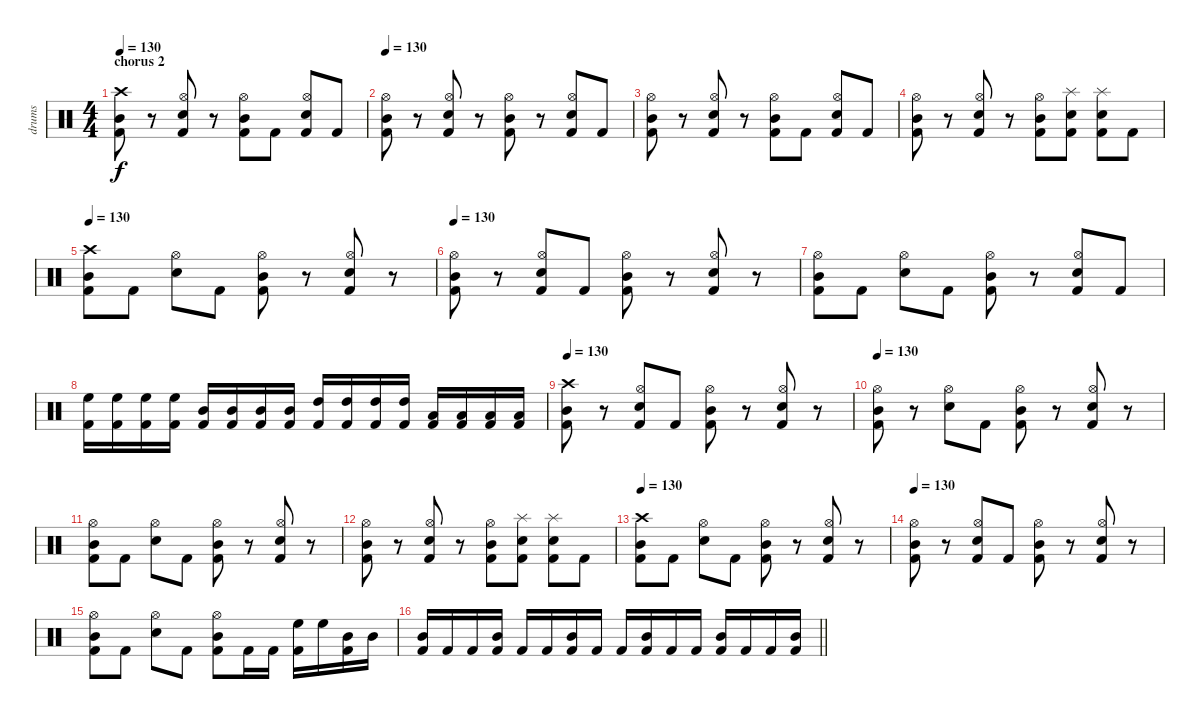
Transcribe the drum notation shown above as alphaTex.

\track ("drums" "drums") {instrument percussion}
\staff {score}
\articulation defaults
\ts (4 4)
\section ("" "chorus 2")
\tempo 130
\clef neutral
\ks c
("Crash high (hit)" "Mid Tom (hit)" "Kick (hit) 2").8{dy f} r.8 ("Hi-Hat (open)" "Snare (hit) 2" "Kick (hit) 2").8 r.8 ("Hi-Hat (open)" "Mid Tom (hit)" "Kick (hit) 2").8 "Kick (hit) 2".8 ("Hi-Hat (open)" "Snare (hit) 2" "Kick (hit) 2").8 "Kick (hit) 2".8 |
\tempo 130
("Hi-Hat (open)" "Mid Tom (hit)" "Kick (hit) 2").8 r.8 ("Hi-Hat (open)" "Snare (hit) 2" "Kick (hit) 2").8 r.8 ("Hi-Hat (open)" "Mid Tom (hit)" "Kick (hit) 2").8 r.8 ("Hi-Hat (open)" "Snare (hit) 2" "Kick (hit) 2").8 "Kick (hit) 2".8 |
("Hi-Hat (open)" "Mid Tom (hit)" "Kick (hit) 2").8 r.8 ("Hi-Hat (open)" "Snare (hit) 2" "Kick (hit) 2").8 r.8 ("Hi-Hat (open)" "Mid Tom (hit)" "Kick (hit) 2").8 "Kick (hit) 2".8 ("Hi-Hat (open)" "Snare (hit) 2" "Kick (hit) 2").8 "Kick (hit) 2".8 |
("Hi-Hat (open)" "Mid Tom (hit)" "Kick (hit) 2").8 r.8 ("Hi-Hat (open)" "Snare (hit) 2" "Kick (hit) 2").8 r.8 ("Hi-Hat (open)" "Mid Tom (hit)" "Kick (hit) 2").8 ("Splash (hit)" "Snare (hit) 2" "Kick (hit) 2").8 ("Splash (hit)" "Snare (hit) 2" "Kick (hit) 2").8 "Kick (hit) 2".8 |
\tempo 130
("Crash high (hit)" "Mid Tom (hit)" "Kick (hit) 2").8 "Kick (hit) 2".8 ("Hi-Hat (open)" "Snare (hit) 2").8 "Kick (hit) 2".8 ("Hi-Hat (open)" "Mid Tom (hit)" "Kick (hit) 2").8 r.8 ("Hi-Hat (open)" "Snare (hit) 2" "Kick (hit) 2").8 r.8 |
\tempo 130
("Hi-Hat (open)" "Mid Tom (hit)" "Kick (hit) 2").8 r.8 ("Hi-Hat (open)" "Snare (hit) 2" "Kick (hit) 2").8 "Kick (hit) 2".8 ("Hi-Hat (open)" "Mid Tom (hit)" "Kick (hit) 2").8 r.8 ("Hi-Hat (open)" "Snare (hit) 2" "Kick (hit) 2").8 r.8 |
("Hi-Hat (open)" "Mid Tom (hit)" "Kick (hit) 2").8 "Kick (hit) 2".8 ("Hi-Hat (open)" "Snare (hit) 2").8 "Kick (hit) 2".8 ("Hi-Hat (open)" "Mid Tom (hit)" "Kick (hit) 2").8 r.8 ("Hi-Hat (open)" "Snare (hit) 2" "Kick (hit) 2").8 "Kick (hit) 2".8 |
("High Floor Tom (hit)" "Kick (hit) 2").16 ("High Floor Tom (hit)" "Kick (hit) 2").16 ("High Floor Tom (hit)" "Kick (hit) 2").16 ("High Floor Tom (hit)" "Kick (hit) 2").16 ("Mid Tom (hit)" "Kick (hit) 2").16 ("Mid Tom (hit)" "Kick (hit) 2").16 ("Mid Tom (hit)" "Kick (hit) 2").16 ("Mid Tom (hit)" "Kick (hit) 2").16 ("High Tom (hit)" "Kick (hit) 2").16 ("High Tom (hit)" "Kick (hit) 2").16 ("High Tom (hit)" "Kick (hit) 2").16 ("High Tom (hit)" "Kick (hit) 2").16 ("Low Tom (hit)" "Kick (hit) 2").16 ("Low Tom (hit)" "Kick (hit) 2").16 ("Low Tom (hit)" "Kick (hit) 2").16 ("Low Tom (hit)" "Kick (hit) 2").16 |
\tempo 130
("Crash high (hit)" "Mid Tom (hit)" "Kick (hit) 2").8 r.8 ("Hi-Hat (open)" "Snare (hit) 2" "Kick (hit) 2").8 "Kick (hit) 2".8 ("Hi-Hat (open)" "Mid Tom (hit)" "Kick (hit) 2").8 r.8 ("Hi-Hat (open)" "Snare (hit) 2" "Kick (hit) 2").8 r.8 |
\tempo 130
("Hi-Hat (open)" "Mid Tom (hit)" "Kick (hit) 2").8 r.8 ("Hi-Hat (open)" "Snare (hit) 2").8 "Kick (hit) 2".8 ("Hi-Hat (open)" "Mid Tom (hit)" "Kick (hit) 2").8 r.8 ("Hi-Hat (open)" "Snare (hit) 2" "Kick (hit) 2").8 r.8 |
("Hi-Hat (open)" "Mid Tom (hit)" "Kick (hit) 2").8 "Kick (hit) 2".8 ("Hi-Hat (open)" "Snare (hit) 2").8 "Kick (hit) 2".8 ("Hi-Hat (open)" "Mid Tom (hit)" "Kick (hit) 2").8 r.8 ("Hi-Hat (open)" "Snare (hit) 2" "Kick (hit) 2").8 r.8 |
("Hi-Hat (open)" "Mid Tom (hit)" "Kick (hit) 2").8 r.8 ("Hi-Hat (open)" "Snare (hit) 2" "Kick (hit) 2").8 r.8 ("Hi-Hat (open)" "Mid Tom (hit)" "Kick (hit) 2").8 ("Splash (hit)" "Snare (hit) 2" "Kick (hit) 2").8 ("Splash (hit)" "Snare (hit) 2" "Kick (hit) 2").8 "Kick (hit) 2".8 |
\tempo 130
("Crash high (hit)" "Mid Tom (hit)" "Kick (hit) 2").8 "Kick (hit) 2".8 ("Hi-Hat (open)" "Snare (hit) 2").8 "Kick (hit) 2".8 ("Hi-Hat (open)" "Mid Tom (hit)" "Kick (hit) 2").8 r.8 ("Hi-Hat (open)" "Snare (hit) 2" "Kick (hit) 2").8 r.8 |
\tempo 130
("Hi-Hat (open)" "Mid Tom (hit)" "Kick (hit) 2").8 r.8 ("Hi-Hat (open)" "Snare (hit) 2" "Kick (hit) 2").8 "Kick (hit) 2".8 ("Hi-Hat (open)" "Mid Tom (hit)" "Kick (hit) 2").8 r.8 ("Hi-Hat (open)" "Snare (hit) 2" "Kick (hit) 2").8 r.8 |
("Hi-Hat (open)" "Mid Tom (hit)" "Kick (hit) 2").8 "Kick (hit) 2".8 ("Hi-Hat (open)" "Snare (hit) 2").8 "Kick (hit) 2".8 ("Hi-Hat (open)" "Mid Tom (hit)" "Kick (hit) 2").8 "Kick (hit) 2".16 "Kick (hit) 2".16 ("High Floor Tom (hit)" "Kick (hit) 2").16 "High Floor Tom (hit)".16 ("Mid Tom (hit)" "Kick (hit) 2").16 "Mid Tom (hit)".16 |
\barLineRight lightlight
("Mid Tom (hit)" "Kick (hit) 2").16 "Kick (hit) 2".16 "Kick (hit) 2".16 ("Mid Tom (hit)" "Kick (hit) 2").16 "Kick (hit) 2".16 "Kick (hit) 2".16 ("Mid Tom (hit)" "Kick (hit) 2").16 "Kick (hit) 2".16 "Kick (hit) 2".16 ("Mid Tom (hit)" "Kick (hit) 2").16 "Kick (hit) 2".16 "Kick (hit) 2".16 ("Mid Tom (hit)" "Kick (hit) 2").16 "Kick (hit) 2".16 "Kick (hit) 2".16 ("Mid Tom (hit)" "Kick (hit) 2").16
